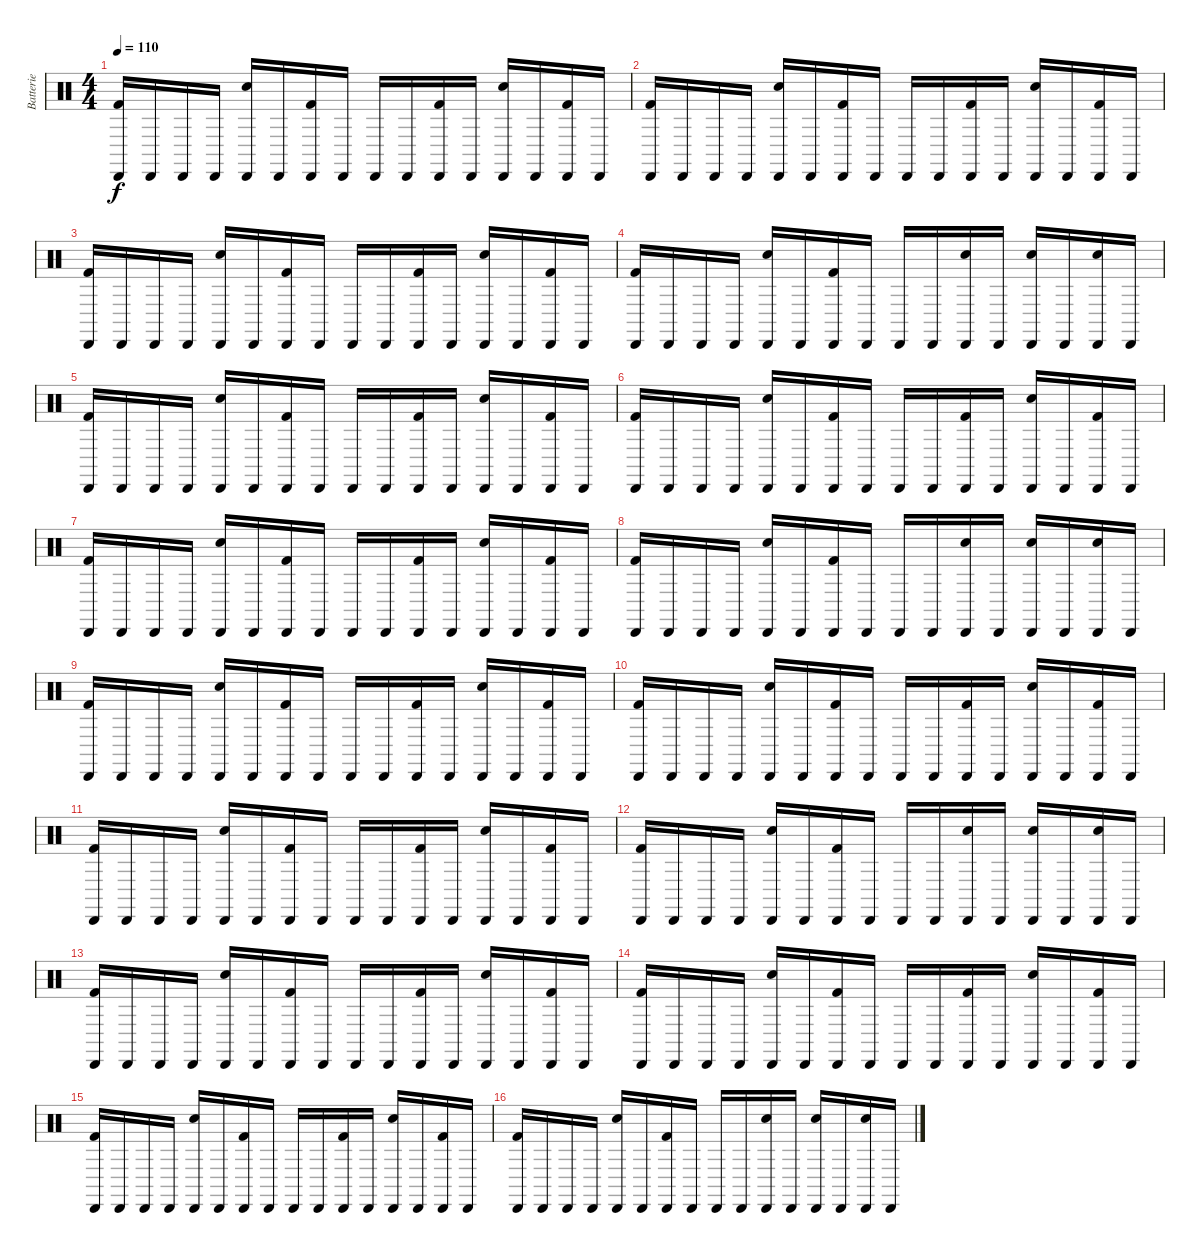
\track ("Batterie" "Batterie") {instrument percussion}
\staff {score}
\articulation defaults
\ts (4 4)
\tempo 110
\clef neutral
\ks c
("Cabasa (hit)" "Kick (hit) 2").16{dy f} "Cabasa (hit)".16 "Cabasa (hit)".16 "Cabasa (hit)".16 ("Cabasa (hit)" "Snare (hit) 2").16 "Cabasa (hit)".16 ("Cabasa (hit)" "Kick (hit) 2").16 "Cabasa (hit)".16 "Cabasa (hit)".16 "Cabasa (hit)".16 ("Cabasa (hit)" "Kick (hit) 2").16 "Cabasa (hit)".16 ("Cabasa (hit)" "Snare (hit) 2").16 "Cabasa (hit)".16 ("Cabasa (hit)" "Kick (hit) 2").16 "Cabasa (hit)".16 |
("Cabasa (hit)" "Kick (hit) 2").16 "Cabasa (hit)".16 "Cabasa (hit)".16 "Cabasa (hit)".16 ("Cabasa (hit)" "Snare (hit) 2").16 "Cabasa (hit)".16 ("Cabasa (hit)" "Kick (hit) 2").16 "Cabasa (hit)".16 "Cabasa (hit)".16 "Cabasa (hit)".16 ("Cabasa (hit)" "Kick (hit) 2").16 "Cabasa (hit)".16 ("Cabasa (hit)" "Snare (hit) 2").16 "Cabasa (hit)".16 ("Cabasa (hit)" "Kick (hit) 2").16 "Cabasa (hit)".16 |
("Cabasa (hit)" "Kick (hit) 2").16 "Cabasa (hit)".16 "Cabasa (hit)".16 "Cabasa (hit)".16 ("Cabasa (hit)" "Snare (hit) 2").16 "Cabasa (hit)".16 ("Cabasa (hit)" "Kick (hit) 2").16 "Cabasa (hit)".16 "Cabasa (hit)".16 "Cabasa (hit)".16 ("Cabasa (hit)" "Kick (hit) 2").16 "Cabasa (hit)".16 ("Cabasa (hit)" "Snare (hit) 2").16 "Cabasa (hit)".16 ("Cabasa (hit)" "Kick (hit) 2").16 "Cabasa (hit)".16 |
("Cabasa (hit)" "Kick (hit) 2").16 "Cabasa (hit)".16 "Cabasa (hit)".16 "Cabasa (hit)".16 ("Cabasa (hit)" "Snare (hit) 2").16 "Cabasa (hit)".16 ("Cabasa (hit)" "Kick (hit) 2").16 "Cabasa (hit)".16 "Cabasa (hit)".16 "Cabasa (hit)".16 ("Cabasa (hit)" "Snare (hit) 2").16 "Cabasa (hit)".16 ("Cabasa (hit)" "Snare (hit) 2").16 "Cabasa (hit)".16 ("Cabasa (hit)" "Snare (hit) 2").16 "Cabasa (hit)".16 |
("Cabasa (hit)" "Kick (hit) 2").16 "Cabasa (hit)".16 "Cabasa (hit)".16 "Cabasa (hit)".16 ("Cabasa (hit)" "Snare (hit) 2").16 "Cabasa (hit)".16 ("Cabasa (hit)" "Kick (hit) 2").16 "Cabasa (hit)".16 "Cabasa (hit)".16 "Cabasa (hit)".16 ("Cabasa (hit)" "Kick (hit) 2").16 "Cabasa (hit)".16 ("Cabasa (hit)" "Snare (hit) 2").16 "Cabasa (hit)".16 ("Cabasa (hit)" "Kick (hit) 2").16 "Cabasa (hit)".16 |
("Cabasa (hit)" "Kick (hit) 2").16 "Cabasa (hit)".16 "Cabasa (hit)".16 "Cabasa (hit)".16 ("Cabasa (hit)" "Snare (hit) 2").16 "Cabasa (hit)".16 ("Cabasa (hit)" "Kick (hit) 2").16 "Cabasa (hit)".16 "Cabasa (hit)".16 "Cabasa (hit)".16 ("Cabasa (hit)" "Kick (hit) 2").16 "Cabasa (hit)".16 ("Cabasa (hit)" "Snare (hit) 2").16 "Cabasa (hit)".16 ("Cabasa (hit)" "Kick (hit) 2").16 "Cabasa (hit)".16 |
("Cabasa (hit)" "Kick (hit) 2").16 "Cabasa (hit)".16 "Cabasa (hit)".16 "Cabasa (hit)".16 ("Cabasa (hit)" "Snare (hit) 2").16 "Cabasa (hit)".16 ("Cabasa (hit)" "Kick (hit) 2").16 "Cabasa (hit)".16 "Cabasa (hit)".16 "Cabasa (hit)".16 ("Cabasa (hit)" "Kick (hit) 2").16 "Cabasa (hit)".16 ("Cabasa (hit)" "Snare (hit) 2").16 "Cabasa (hit)".16 ("Cabasa (hit)" "Kick (hit) 2").16 "Cabasa (hit)".16 |
("Cabasa (hit)" "Kick (hit) 2").16 "Cabasa (hit)".16 "Cabasa (hit)".16 "Cabasa (hit)".16 ("Cabasa (hit)" "Snare (hit) 2").16 "Cabasa (hit)".16 ("Cabasa (hit)" "Kick (hit) 2").16 "Cabasa (hit)".16 "Cabasa (hit)".16 "Cabasa (hit)".16 ("Cabasa (hit)" "Snare (hit) 2").16 "Cabasa (hit)".16 ("Cabasa (hit)" "Snare (hit) 2").16 "Cabasa (hit)".16 ("Cabasa (hit)" "Snare (hit) 2").16 "Cabasa (hit)".16 |
("Cabasa (hit)" "Kick (hit) 2").16 "Cabasa (hit)".16 "Cabasa (hit)".16 "Cabasa (hit)".16 ("Cabasa (hit)" "Snare (hit) 2").16 "Cabasa (hit)".16 ("Cabasa (hit)" "Kick (hit) 2").16 "Cabasa (hit)".16 "Cabasa (hit)".16 "Cabasa (hit)".16 ("Cabasa (hit)" "Kick (hit) 2").16 "Cabasa (hit)".16 ("Cabasa (hit)" "Snare (hit) 2").16 "Cabasa (hit)".16 ("Cabasa (hit)" "Kick (hit) 2").16 "Cabasa (hit)".16 |
("Cabasa (hit)" "Kick (hit) 2").16 "Cabasa (hit)".16 "Cabasa (hit)".16 "Cabasa (hit)".16 ("Cabasa (hit)" "Snare (hit) 2").16 "Cabasa (hit)".16 ("Cabasa (hit)" "Kick (hit) 2").16 "Cabasa (hit)".16 "Cabasa (hit)".16 "Cabasa (hit)".16 ("Cabasa (hit)" "Kick (hit) 2").16 "Cabasa (hit)".16 ("Cabasa (hit)" "Snare (hit) 2").16 "Cabasa (hit)".16 ("Cabasa (hit)" "Kick (hit) 2").16 "Cabasa (hit)".16 |
("Cabasa (hit)" "Kick (hit) 2").16 "Cabasa (hit)".16 "Cabasa (hit)".16 "Cabasa (hit)".16 ("Cabasa (hit)" "Snare (hit) 2").16 "Cabasa (hit)".16 ("Cabasa (hit)" "Kick (hit) 2").16 "Cabasa (hit)".16 "Cabasa (hit)".16 "Cabasa (hit)".16 ("Cabasa (hit)" "Kick (hit) 2").16 "Cabasa (hit)".16 ("Cabasa (hit)" "Snare (hit) 2").16 "Cabasa (hit)".16 ("Cabasa (hit)" "Kick (hit) 2").16 "Cabasa (hit)".16 |
("Cabasa (hit)" "Kick (hit) 2").16 "Cabasa (hit)".16 "Cabasa (hit)".16 "Cabasa (hit)".16 ("Cabasa (hit)" "Snare (hit) 2").16 "Cabasa (hit)".16 ("Cabasa (hit)" "Kick (hit) 2").16 "Cabasa (hit)".16 "Cabasa (hit)".16 "Cabasa (hit)".16 ("Cabasa (hit)" "Snare (hit) 2").16 "Cabasa (hit)".16 ("Cabasa (hit)" "Snare (hit) 2").16 "Cabasa (hit)".16 ("Cabasa (hit)" "Snare (hit) 2").16 "Cabasa (hit)".16 |
("Cabasa (hit)" "Kick (hit) 2").16 "Cabasa (hit)".16 "Cabasa (hit)".16 "Cabasa (hit)".16 ("Cabasa (hit)" "Snare (hit) 2").16 "Cabasa (hit)".16 ("Cabasa (hit)" "Kick (hit) 2").16 "Cabasa (hit)".16 "Cabasa (hit)".16 "Cabasa (hit)".16 ("Cabasa (hit)" "Kick (hit) 2").16 "Cabasa (hit)".16 ("Cabasa (hit)" "Snare (hit) 2").16 "Cabasa (hit)".16 ("Cabasa (hit)" "Kick (hit) 2").16 "Cabasa (hit)".16 |
("Cabasa (hit)" "Kick (hit) 2").16 "Cabasa (hit)".16 "Cabasa (hit)".16 "Cabasa (hit)".16 ("Cabasa (hit)" "Snare (hit) 2").16 "Cabasa (hit)".16 ("Cabasa (hit)" "Kick (hit) 2").16 "Cabasa (hit)".16 "Cabasa (hit)".16 "Cabasa (hit)".16 ("Cabasa (hit)" "Kick (hit) 2").16 "Cabasa (hit)".16 ("Cabasa (hit)" "Snare (hit) 2").16 "Cabasa (hit)".16 ("Cabasa (hit)" "Kick (hit) 2").16 "Cabasa (hit)".16 |
("Cabasa (hit)" "Kick (hit) 2").16 "Cabasa (hit)".16 "Cabasa (hit)".16 "Cabasa (hit)".16 ("Cabasa (hit)" "Snare (hit) 2").16 "Cabasa (hit)".16 ("Cabasa (hit)" "Kick (hit) 2").16 "Cabasa (hit)".16 "Cabasa (hit)".16 "Cabasa (hit)".16 ("Cabasa (hit)" "Kick (hit) 2").16 "Cabasa (hit)".16 ("Cabasa (hit)" "Snare (hit) 2").16 "Cabasa (hit)".16 ("Cabasa (hit)" "Kick (hit) 2").16 "Cabasa (hit)".16 |
("Cabasa (hit)" "Kick (hit) 2").16 "Cabasa (hit)".16 "Cabasa (hit)".16 "Cabasa (hit)".16 ("Cabasa (hit)" "Snare (hit) 2").16 "Cabasa (hit)".16 ("Cabasa (hit)" "Kick (hit) 2").16 "Cabasa (hit)".16 "Cabasa (hit)".16 "Cabasa (hit)".16 ("Cabasa (hit)" "Snare (hit) 2").16 "Cabasa (hit)".16 ("Cabasa (hit)" "Snare (hit) 2").16 "Cabasa (hit)".16 ("Cabasa (hit)" "Snare (hit) 2").16 "Cabasa (hit)".16
